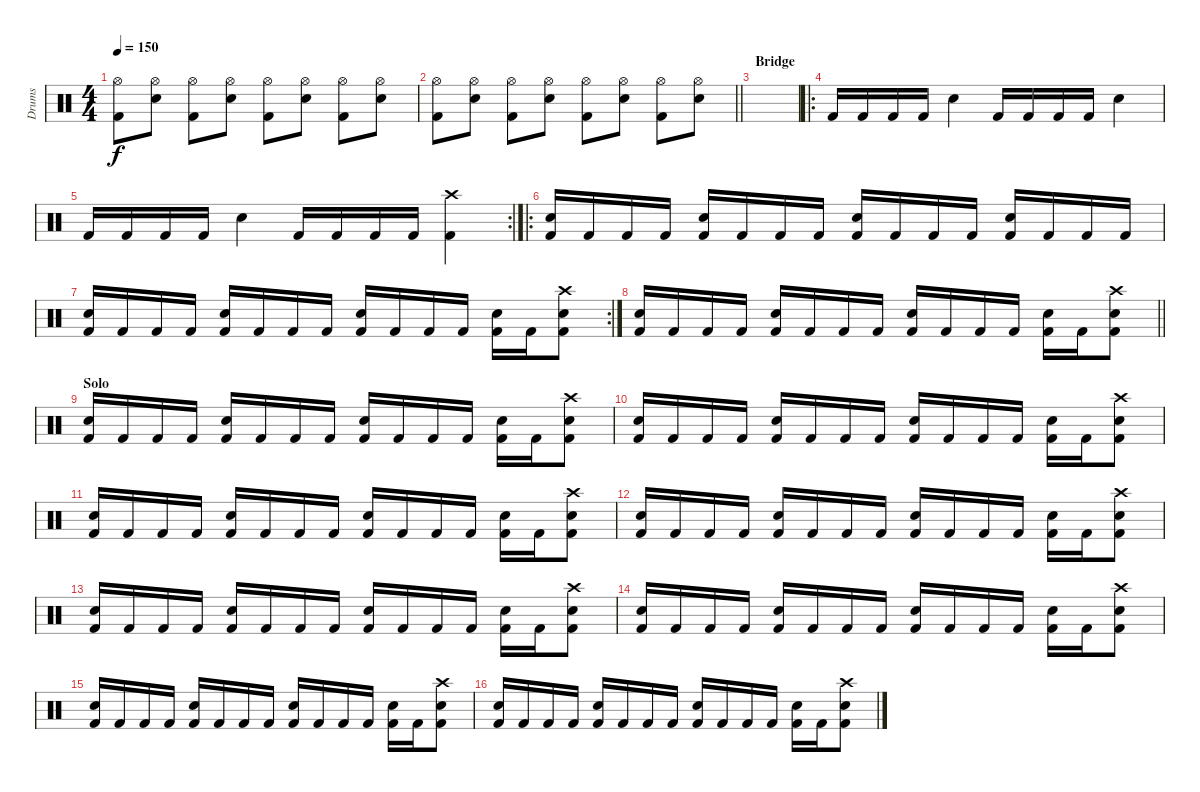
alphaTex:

\track ("Drums" "Drums") {instrument percussion}
\staff {score}
\articulation defaults
\ts (4 4)
\tempo 150
\clef neutral
\ks c
("Hi-Hat (open)" "Kick (hit) 2").8{dy f} ("Hi-Hat (open)" "Snare (hit) 2").8 ("Hi-Hat (open)" "Kick (hit) 2").8 ("Hi-Hat (open)" "Snare (hit) 2").8 ("Hi-Hat (open)" "Kick (hit) 2").8 ("Hi-Hat (open)" "Snare (hit) 2").8 ("Hi-Hat (open)" "Kick (hit) 2").8 ("Hi-Hat (open)" "Snare (hit) 2").8 |
\barLineRight lightlight
("Hi-Hat (open)" "Kick (hit) 2").8 ("Hi-Hat (open)" "Snare (hit) 2").8 ("Hi-Hat (open)" "Kick (hit) 2").8 ("Hi-Hat (open)" "Snare (hit) 2").8 ("Hi-Hat (open)" "Kick (hit) 2").8 ("Hi-Hat (open)" "Snare (hit) 2").8 ("Hi-Hat (open)" "Kick (hit) 2").8 ("Hi-Hat (open)" "Snare (hit) 2").8 |
\section ("" "Bridge")
|
\ro "Kick (hit) 2".16 "Kick (hit) 2".16 "Kick (hit) 2".16 "Kick (hit) 2".16 "Snare (hit) 2".4 "Kick (hit) 2".16 "Kick (hit) 2".16 "Kick (hit) 2".16 "Kick (hit) 2".16 "Snare (hit) 2".4
|
\rc 2 "Kick (hit) 2".16 "Kick (hit) 2".16 "Kick (hit) 2".16 "Kick (hit) 2".16 "Snare (hit) 2".4 "Kick (hit) 2".16 "Kick (hit) 2".16 "Kick (hit) 2".16 "Kick (hit) 2".16
("Crash high (hit)" "Kick (hit) 2").4 |
\ro
("Snare (hit) 2" "Kick (hit) 2").16 "Kick (hit) 2".16 "Kick (hit) 2".16 "Kick (hit) 2".16 ("Snare (hit) 2" "Kick (hit) 2").16 "Kick (hit) 2".16 "Kick (hit) 2".16 "Kick (hit) 2".16 ("Snare (hit) 2" "Kick (hit) 2").16 "Kick (hit) 2".16 "Kick (hit) 2".16 "Kick (hit) 2".16 ("Snare (hit) 2" "Kick (hit) 2").16 "Kick (hit) 2".16 "Kick (hit) 2".16 "Kick (hit) 2".16 |
\rc 2
("Snare (hit) 2" "Kick (hit) 2").16 "Kick (hit) 2".16 "Kick (hit) 2".16 "Kick (hit) 2".16 ("Snare (hit) 2" "Kick (hit) 2").16 "Kick (hit) 2".16 "Kick (hit) 2".16 "Kick (hit) 2".16 ("Snare (hit) 2" "Kick (hit) 2").16 "Kick (hit) 2".16 "Kick (hit) 2".16 "Kick (hit) 2".16 ("Snare (hit) 2" "Kick (hit) 2").16 "Kick (hit) 2".16 ("Crash high (hit)" "Snare (hit) 2" "Kick (hit) 2").8 |
\barLineRight lightlight
("Snare (hit) 2" "Kick (hit) 2").16 "Kick (hit) 2".16 "Kick (hit) 2".16 "Kick (hit) 2".16 ("Snare (hit) 2" "Kick (hit) 2").16 "Kick (hit) 2".16 "Kick (hit) 2".16 "Kick (hit) 2".16 ("Snare (hit) 2" "Kick (hit) 2").16 "Kick (hit) 2".16 "Kick (hit) 2".16 "Kick (hit) 2".16 ("Snare (hit) 2" "Kick (hit) 2").16 "Kick (hit) 2".16 ("Crash high (hit)" "Snare (hit) 2" "Kick (hit) 2").8 |
\section ("" "Solo")
("Snare (hit) 2" "Kick (hit) 2").16 "Kick (hit) 2".16 "Kick (hit) 2".16 "Kick (hit) 2".16 ("Snare (hit) 2" "Kick (hit) 2").16 "Kick (hit) 2".16 "Kick (hit) 2".16 "Kick (hit) 2".16 ("Snare (hit) 2" "Kick (hit) 2").16 "Kick (hit) 2".16 "Kick (hit) 2".16 "Kick (hit) 2".16 ("Snare (hit) 2" "Kick (hit) 2").16 "Kick (hit) 2".16 ("Crash high (hit)" "Snare (hit) 2" "Kick (hit) 2").8 |
("Snare (hit) 2" "Kick (hit) 2").16 "Kick (hit) 2".16 "Kick (hit) 2".16 "Kick (hit) 2".16 ("Snare (hit) 2" "Kick (hit) 2").16 "Kick (hit) 2".16 "Kick (hit) 2".16 "Kick (hit) 2".16 ("Snare (hit) 2" "Kick (hit) 2").16 "Kick (hit) 2".16 "Kick (hit) 2".16 "Kick (hit) 2".16 ("Snare (hit) 2" "Kick (hit) 2").16 "Kick (hit) 2".16 ("Crash high (hit)" "Snare (hit) 2" "Kick (hit) 2").8 |
("Snare (hit) 2" "Kick (hit) 2").16 "Kick (hit) 2".16 "Kick (hit) 2".16 "Kick (hit) 2".16 ("Snare (hit) 2" "Kick (hit) 2").16 "Kick (hit) 2".16 "Kick (hit) 2".16 "Kick (hit) 2".16 ("Snare (hit) 2" "Kick (hit) 2").16 "Kick (hit) 2".16 "Kick (hit) 2".16 "Kick (hit) 2".16 ("Snare (hit) 2" "Kick (hit) 2").16 "Kick (hit) 2".16 ("Crash high (hit)" "Snare (hit) 2" "Kick (hit) 2").8 |
("Snare (hit) 2" "Kick (hit) 2").16 "Kick (hit) 2".16 "Kick (hit) 2".16 "Kick (hit) 2".16 ("Snare (hit) 2" "Kick (hit) 2").16 "Kick (hit) 2".16 "Kick (hit) 2".16 "Kick (hit) 2".16 ("Snare (hit) 2" "Kick (hit) 2").16 "Kick (hit) 2".16 "Kick (hit) 2".16 "Kick (hit) 2".16 ("Snare (hit) 2" "Kick (hit) 2").16 "Kick (hit) 2".16 ("Crash high (hit)" "Snare (hit) 2" "Kick (hit) 2").8 |
("Snare (hit) 2" "Kick (hit) 2").16 "Kick (hit) 2".16 "Kick (hit) 2".16 "Kick (hit) 2".16 ("Snare (hit) 2" "Kick (hit) 2").16 "Kick (hit) 2".16 "Kick (hit) 2".16 "Kick (hit) 2".16 ("Snare (hit) 2" "Kick (hit) 2").16 "Kick (hit) 2".16 "Kick (hit) 2".16 "Kick (hit) 2".16 ("Snare (hit) 2" "Kick (hit) 2").16 "Kick (hit) 2".16 ("Crash high (hit)" "Snare (hit) 2" "Kick (hit) 2").8 |
("Snare (hit) 2" "Kick (hit) 2").16 "Kick (hit) 2".16 "Kick (hit) 2".16 "Kick (hit) 2".16 ("Snare (hit) 2" "Kick (hit) 2").16 "Kick (hit) 2".16 "Kick (hit) 2".16 "Kick (hit) 2".16 ("Snare (hit) 2" "Kick (hit) 2").16 "Kick (hit) 2".16 "Kick (hit) 2".16 "Kick (hit) 2".16 ("Snare (hit) 2" "Kick (hit) 2").16 "Kick (hit) 2".16 ("Crash high (hit)" "Snare (hit) 2" "Kick (hit) 2").8 |
("Snare (hit) 2" "Kick (hit) 2").16 "Kick (hit) 2".16 "Kick (hit) 2".16 "Kick (hit) 2".16 ("Snare (hit) 2" "Kick (hit) 2").16 "Kick (hit) 2".16 "Kick (hit) 2".16 "Kick (hit) 2".16 ("Snare (hit) 2" "Kick (hit) 2").16 "Kick (hit) 2".16 "Kick (hit) 2".16 "Kick (hit) 2".16 ("Snare (hit) 2" "Kick (hit) 2").16 "Kick (hit) 2".16 ("Crash high (hit)" "Snare (hit) 2" "Kick (hit) 2").8 |
("Snare (hit) 2" "Kick (hit) 2").16 "Kick (hit) 2".16 "Kick (hit) 2".16 "Kick (hit) 2".16 ("Snare (hit) 2" "Kick (hit) 2").16 "Kick (hit) 2".16 "Kick (hit) 2".16 "Kick (hit) 2".16 ("Snare (hit) 2" "Kick (hit) 2").16 "Kick (hit) 2".16 "Kick (hit) 2".16 "Kick (hit) 2".16 ("Snare (hit) 2" "Kick (hit) 2").16 "Kick (hit) 2".16 ("Crash high (hit)" "Snare (hit) 2" "Kick (hit) 2").8
